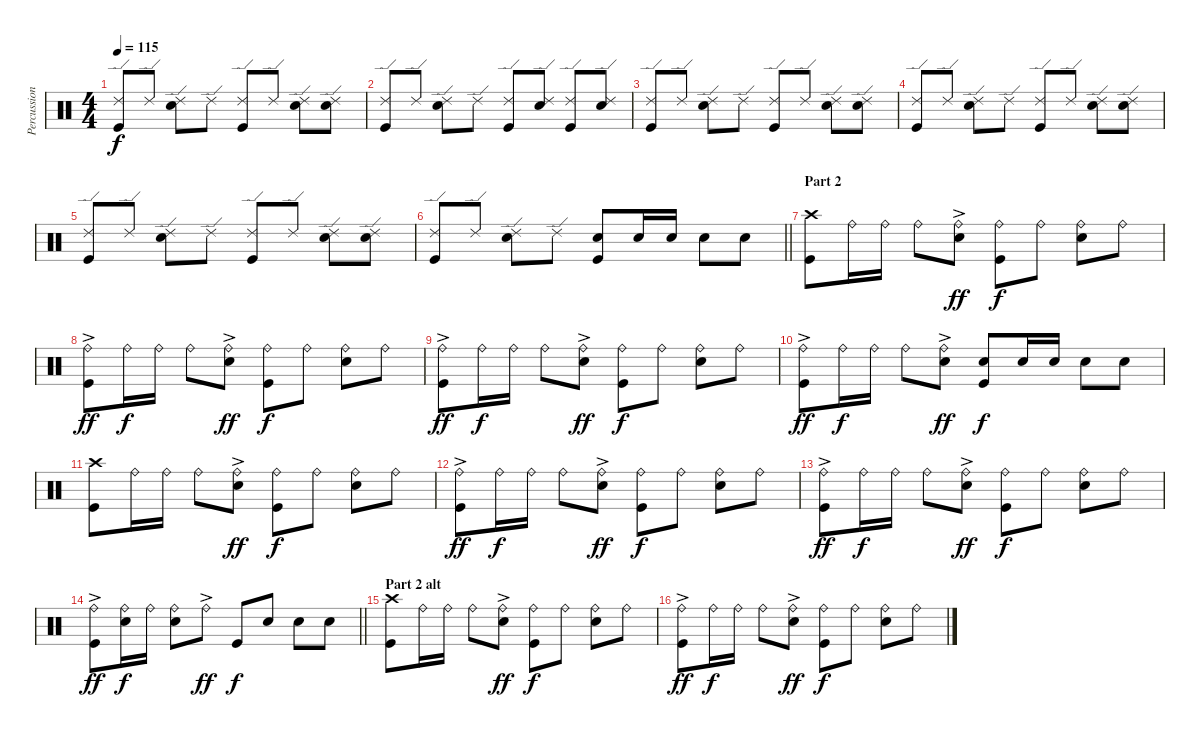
\track ("Percussion" "Percussion") {instrument percussion}
\staff {score}
\articulation defaults
\ts (4 4)
\tempo 115
\clef neutral
\ks c
("Ride (edge) 2" "Kick (hit)").8{dy f} "Ride (edge) 2".8 ("Ride (edge) 2" "Snare (hit) 2").8 "Ride (edge) 2".8 ("Ride (edge) 2" "Kick (hit)").8 "Ride (edge) 2".8 ("Ride (edge) 2" "Snare (hit) 2").8 ("Ride (edge) 2" "Snare (hit) 2").8 |
("Ride (edge) 2" "Kick (hit)").8 "Ride (edge) 2".8 ("Ride (edge) 2" "Snare (hit) 2").8 "Ride (edge) 2".8 ("Ride (edge) 2" "Kick (hit)").8 ("Ride (edge) 2" "Snare (hit) 2").8 ("Ride (edge) 2" "Kick (hit)").8 ("Ride (edge) 2" "Snare (hit) 2").8 |
("Ride (edge) 2" "Kick (hit)").8 "Ride (edge) 2".8 ("Ride (edge) 2" "Snare (hit) 2").8 "Ride (edge) 2".8 ("Ride (edge) 2" "Kick (hit)").8 "Ride (edge) 2".8 ("Ride (edge) 2" "Snare (hit) 2").8 ("Ride (edge) 2" "Snare (hit) 2").8 |
("Ride (edge) 2" "Kick (hit)").8 "Ride (edge) 2".8 ("Ride (edge) 2" "Snare (hit) 2").8 "Ride (edge) 2".8 ("Ride (edge) 2" "Kick (hit)").8 "Ride (edge) 2".8 ("Ride (edge) 2" "Snare (hit) 2").8 ("Ride (edge) 2" "Snare (hit) 2").8 |
("Ride (edge) 2" "Kick (hit)").8 "Ride (edge) 2".8 ("Ride (edge) 2" "Snare (hit) 2").8 "Ride (edge) 2".8 ("Ride (edge) 2" "Kick (hit)").8 "Ride (edge) 2".8 ("Ride (edge) 2" "Snare (hit) 2").8 ("Ride (edge) 2" "Snare (hit) 2").8 |
\barLineRight lightlight
("Ride (edge) 2" "Kick (hit)").8 "Ride (edge) 2".8 ("Ride (edge) 2" "Snare (hit) 2").8 "Ride (edge) 2".8 ("Snare (hit) 2" "Kick (hit)").8 "Snare (hit) 2".16 "Snare (hit) 2".16 "Snare (hit) 2".8 "Snare (hit) 2".8 |
\section ("" "Part 2")
("Crash high (hit)" "Kick (hit)").8 "Ride (bell)".16 "Ride (bell)".16 "Ride (bell)".8 ("Ride (bell)"{ac} "Snare (hit) 2").8{dy ff} ("Ride (bell)" "Kick (hit)").8{dy f} "Ride (bell)".8 ("Ride (bell)" "Snare (hit) 2").8 "Ride (bell)".8 |
("Ride (bell)"{ac} "Kick (hit)").8{dy ff} "Ride (bell)".16{dy f} "Ride (bell)".16 "Ride (bell)".8 ("Ride (bell)"{ac} "Snare (hit) 2").8{dy ff} ("Ride (bell)" "Kick (hit)").8{dy f} "Ride (bell)".8 ("Ride (bell)" "Snare (hit) 2").8 "Ride (bell)".8 |
("Ride (bell)"{ac} "Kick (hit)").8{dy ff} "Ride (bell)".16{dy f} "Ride (bell)".16 "Ride (bell)".8 ("Ride (bell)"{ac} "Snare (hit) 2").8{dy ff} ("Ride (bell)" "Kick (hit)").8{dy f} "Ride (bell)".8 ("Ride (bell)" "Snare (hit) 2").8 "Ride (bell)".8 |
("Ride (bell)"{ac} "Kick (hit)").8{dy ff} "Ride (bell)".16{dy f} "Ride (bell)".16 "Ride (bell)".8 ("Ride (bell)"{ac} "Snare (hit) 2").8{dy ff} ("Snare (hit) 2" "Kick (hit)").8{dy f} "Snare (hit) 2".16 "Snare (hit) 2".16 "Snare (hit) 2".8 "Snare (hit) 2".8 |
("Crash high (hit)" "Kick (hit)").8 "Ride (bell)".16 "Ride (bell)".16 "Ride (bell)".8 ("Ride (bell)"{ac} "Snare (hit) 2").8{dy ff} ("Ride (bell)" "Kick (hit)").8{dy f} "Ride (bell)".8 ("Ride (bell)" "Snare (hit) 2").8 "Ride (bell)".8 |
("Ride (bell)"{ac} "Kick (hit)").8{dy ff} "Ride (bell)".16{dy f} "Ride (bell)".16 "Ride (bell)".8 ("Ride (bell)"{ac} "Snare (hit) 2").8{dy ff} ("Ride (bell)" "Kick (hit)").8{dy f} "Ride (bell)".8 ("Ride (bell)" "Snare (hit) 2").8 "Ride (bell)".8 |
("Ride (bell)"{ac} "Kick (hit)").8{dy ff} "Ride (bell)".16{dy f} "Ride (bell)".16 "Ride (bell)".8 ("Ride (bell)"{ac} "Snare (hit) 2").8{dy ff} ("Ride (bell)" "Kick (hit)").8{dy f} "Ride (bell)".8 ("Ride (bell)" "Snare (hit) 2").8 "Ride (bell)".8 |
\barLineRight lightlight
("Ride (bell)"{ac} "Kick (hit)").8{dy ff} ("Ride (bell)" "Snare (hit) 2").16{dy f} "Ride (bell)".16 ("Ride (bell)" "Snare (hit) 2").8 "Ride (bell)"{ac}.8{dy ff} "Kick (hit)".8{dy f} "Snare (hit) 2".8 "Snare (hit) 2".8 "Snare (hit) 2".8 |
\section ("" "Part 2 alt")
("Crash high (hit)" "Kick (hit)").8 "Ride (bell)".16 "Ride (bell)".16 "Ride (bell)".8 ("Ride (bell)"{ac} "Snare (hit) 2").8{dy ff} ("Ride (bell)" "Kick (hit)").8{dy f} "Ride (bell)".8 ("Ride (bell)" "Snare (hit) 2").8 "Ride (bell)".8 |
("Ride (bell)"{ac} "Kick (hit)").8{dy ff} "Ride (bell)".16{dy f} "Ride (bell)".16 "Ride (bell)".8 ("Ride (bell)"{ac} "Snare (hit) 2").8{dy ff} ("Ride (bell)" "Kick (hit)").8{dy f} "Ride (bell)".8 ("Ride (bell)" "Snare (hit) 2").8 "Ride (bell)".8
